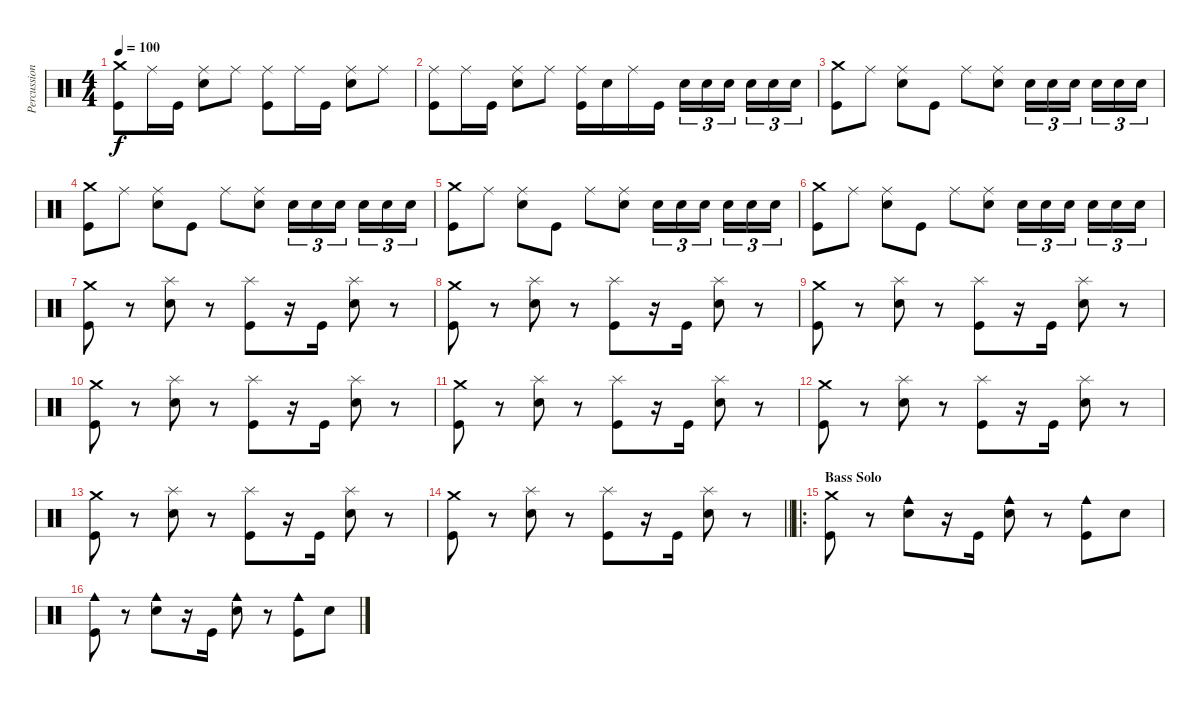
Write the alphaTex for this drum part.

\track ("Percussion" "Percussion") {instrument percussion}
\staff {score}
\articulation defaults
\ts (4 4)
\tempo 100
\clef neutral
\ks c
("Crash medium (hit)" "Kick (hit)").8{dy f} "Ride (middle)".16 "Kick (hit)".16 ("Ride (middle)" "Snare (hit) 2").8 "Ride (middle)".8 ("Ride (middle)" "Kick (hit)").8 "Ride (middle)".16 "Kick (hit)".16 ("Ride (middle)" "Snare (hit) 2").8 "Ride (middle)".8 |
("Ride (middle)" "Kick (hit)").8 "Ride (middle)".16 "Kick (hit)".16 ("Ride (middle)" "Snare (hit) 2").8 "Ride (middle)".8 ("Ride (middle)" "Kick (hit)").16 "Snare (hit) 2".16 "Ride (middle)".16 "Kick (hit)".16 "Snare (hit) 2".16{tu (3 2)} "Snare (hit) 2".16{tu (3 2)} "Snare (hit) 2".16{tu (3 2) beam splitsecondary} "Snare (hit) 2".16{tu (3 2)} "Snare (hit) 2".16{tu (3 2)} "Snare (hit) 2".16{tu (3 2)} |
("Crash medium (hit)" "Kick (hit)").8 "Ride (middle)".8 ("Ride (middle)" "Snare (hit) 2").8 "Kick (hit)".8 "Ride (middle)".8 ("Ride (middle)" "Snare (hit) 2").8 "Snare (hit) 2".16{tu (3 2)} "Snare (hit) 2".16{tu (3 2)} "Snare (hit) 2".16{tu (3 2) beam splitsecondary} "Snare (hit) 2".16{tu (3 2)} "Snare (hit) 2".16{tu (3 2)} "Snare (hit) 2".16{tu (3 2)} |
("Crash medium (hit)" "Kick (hit)").8 "Ride (middle)".8 ("Ride (middle)" "Snare (hit) 2").8 "Kick (hit)".8 "Ride (middle)".8 ("Ride (middle)" "Snare (hit) 2").8 "Snare (hit) 2".16{tu (3 2)} "Snare (hit) 2".16{tu (3 2)} "Snare (hit) 2".16{tu (3 2) beam splitsecondary} "Snare (hit) 2".16{tu (3 2)} "Snare (hit) 2".16{tu (3 2)} "Snare (hit) 2".16{tu (3 2)} |
("Crash medium (hit)" "Kick (hit)").8 "Ride (middle)".8 ("Ride (middle)" "Snare (hit) 2").8 "Kick (hit)".8 "Ride (middle)".8 ("Ride (middle)" "Snare (hit) 2").8 "Snare (hit) 2".16{tu (3 2)} "Snare (hit) 2".16{tu (3 2)} "Snare (hit) 2".16{tu (3 2) beam splitsecondary} "Snare (hit) 2".16{tu (3 2)} "Snare (hit) 2".16{tu (3 2)} "Snare (hit) 2".16{tu (3 2)} |
("Crash medium (hit)" "Kick (hit)").8 "Ride (middle)".8 ("Ride (middle)" "Snare (hit) 2").8 "Kick (hit)".8 "Ride (middle)".8 ("Ride (middle)" "Snare (hit) 2").8 "Snare (hit) 2".16{tu (3 2)} "Snare (hit) 2".16{tu (3 2)} "Snare (hit) 2".16{tu (3 2) beam splitsecondary} "Snare (hit) 2".16{tu (3 2)} "Snare (hit) 2".16{tu (3 2)} "Snare (hit) 2".16{tu (3 2)} |
("Crash medium (hit)" "Kick (hit)").8 r.8 ("Splash (hit)" "Snare (hit) 2").8 r.8 ("Splash (hit)" "Kick (hit)").8 r.16 "Kick (hit)".16 ("Splash (hit)" "Snare (hit) 2").8 r.8 |
("Crash medium (hit)" "Kick (hit)").8 r.8 ("Splash (hit)" "Snare (hit) 2").8 r.8 ("Splash (hit)" "Kick (hit)").8 r.16 "Kick (hit)".16 ("Splash (hit)" "Snare (hit) 2").8 r.8 |
("Crash medium (hit)" "Kick (hit)").8 r.8 ("Splash (hit)" "Snare (hit) 2").8 r.8 ("Splash (hit)" "Kick (hit)").8 r.16 "Kick (hit)".16 ("Splash (hit)" "Snare (hit) 2").8 r.8 |
("Crash medium (hit)" "Kick (hit)").8 r.8 ("Splash (hit)" "Snare (hit) 2").8 r.8 ("Splash (hit)" "Kick (hit)").8 r.16 "Kick (hit)".16 ("Splash (hit)" "Snare (hit) 2").8 r.8 |
("Crash medium (hit)" "Kick (hit)").8 r.8 ("Splash (hit)" "Snare (hit) 2").8 r.8 ("Splash (hit)" "Kick (hit)").8 r.16 "Kick (hit)".16 ("Splash (hit)" "Snare (hit) 2").8 r.8 |
("Crash medium (hit)" "Kick (hit)").8 r.8 ("Splash (hit)" "Snare (hit) 2").8 r.8 ("Splash (hit)" "Kick (hit)").8 r.16 "Kick (hit)".16 ("Splash (hit)" "Snare (hit) 2").8 r.8 |
("Crash medium (hit)" "Kick (hit)").8 r.8 ("Splash (hit)" "Snare (hit) 2").8 r.8 ("Splash (hit)" "Kick (hit)").8 r.16 "Kick (hit)".16 ("Splash (hit)" "Snare (hit) 2").8 r.8 |
\barLineRight lightlight
("Crash medium (hit)" "Kick (hit)").8 r.8 ("Splash (hit)" "Snare (hit) 2").8 r.8 ("Splash (hit)" "Kick (hit)").8 r.16 "Kick (hit)".16 ("Splash (hit)" "Snare (hit) 2").8 r.8 |
\ro
\section ("" "Bass Solo")
("Crash medium (hit)" "Kick (hit)").8 r.8 ("Cowbell medium (hit)" "Snare (hit) 2").8 r.16 "Kick (hit)".16 ("Cowbell medium (hit)" "Snare (hit) 2").8 r.8 ("Cowbell medium (hit)" "Kick (hit)").8 "Snare (hit) 2".8 |
("Cowbell medium (hit)" "Kick (hit)").8 r.8 ("Cowbell medium (hit)" "Snare (hit) 2").8 r.16 "Kick (hit)".16 ("Cowbell medium (hit)" "Snare (hit) 2").8 r.8 ("Cowbell medium (hit)" "Kick (hit)").8 "Snare (hit) 2".8
